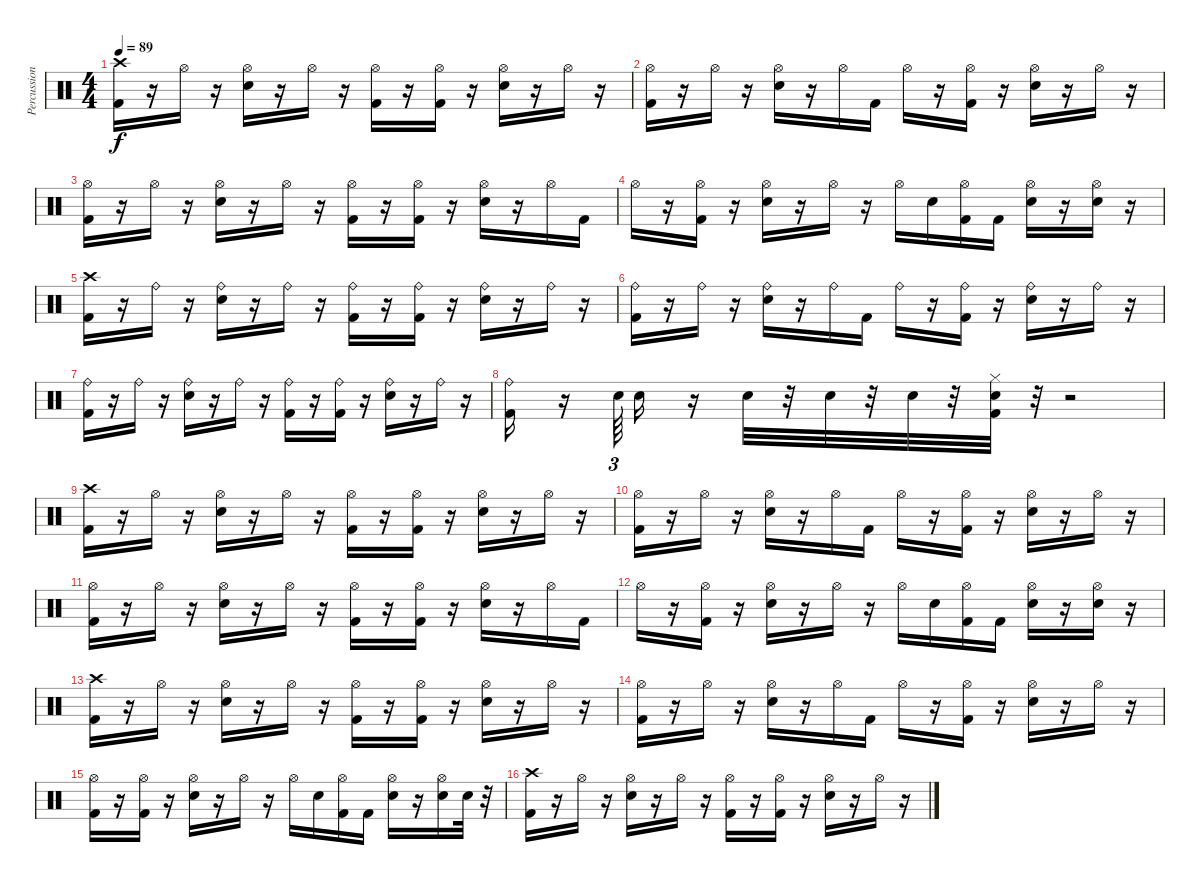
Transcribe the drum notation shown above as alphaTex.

\track ("Percussion" "Percussion") {instrument percussion}
\staff {score}
\articulation defaults
\ts (4 4)
\tempo 89
\clef neutral
\ks c
("Kick (hit) 2" "Crash high (hit)").16{dy f} r.16 "Hi-Hat (open)".16 r.16 ("Snare (hit) 2" "Hi-Hat (open)").16 r.16 "Hi-Hat (open)".16 r.16 ("Kick (hit) 2" "Hi-Hat (open)").16 r.16 ("Kick (hit) 2" "Hi-Hat (open)").16 r.16 ("Snare (hit) 2" "Hi-Hat (open)").16 r.16 "Hi-Hat (open)".16 r.16 |
("Kick (hit) 2" "Hi-Hat (open)").16 r.16 "Hi-Hat (open)".16 r.16 ("Snare (hit) 2" "Hi-Hat (open)").16 r.16 "Hi-Hat (open)".16 "Kick (hit) 2".16 "Hi-Hat (open)".16 r.16 ("Kick (hit) 2" "Hi-Hat (open)").16 r.16 ("Snare (hit) 2" "Hi-Hat (open)").16 r.16 "Hi-Hat (open)".16 r.16 |
("Kick (hit) 2" "Hi-Hat (open)").16 r.16 "Hi-Hat (open)".16 r.16 ("Snare (hit) 2" "Hi-Hat (open)").16 r.16 "Hi-Hat (open)".16 r.16 ("Kick (hit) 2" "Hi-Hat (open)").16 r.16 ("Kick (hit) 2" "Hi-Hat (open)").16 r.16 ("Snare (hit) 2" "Hi-Hat (open)").16 r.16 "Hi-Hat (open)".16 "Kick (hit) 2".16 |
"Hi-Hat (open)".16 r.16 ("Kick (hit) 2" "Hi-Hat (open)").16 r.16 ("Snare (hit) 2" "Hi-Hat (open)").16 r.16 "Hi-Hat (open)".16 r.16 "Hi-Hat (open)".16 "Snare (hit) 2".16 ("Kick (hit) 2" "Hi-Hat (open)").16 "Kick (hit) 2".16 ("Snare (hit) 2" "Hi-Hat (open)").16 r.16 ("Snare (hit) 2" "Hi-Hat (open)").16 r.16 |
("Crash high (hit)" "Kick (hit) 2").16 r.16 "Ride (bell)".16 r.16 ("Ride (bell)" "Snare (hit) 2").16 r.16 "Ride (bell)".16 r.16 ("Ride (bell)" "Kick (hit) 2").16 r.16 ("Ride (bell)" "Kick (hit) 2").16 r.16 ("Ride (bell)" "Snare (hit) 2").16 r.16 "Ride (bell)".16 r.16 |
("Ride (bell)" "Kick (hit) 2").16 r.16 "Ride (bell)".16 r.16 ("Ride (bell)" "Snare (hit) 2").16 r.16 "Ride (bell)".16 "Kick (hit) 2".16 "Ride (bell)".16 r.16 ("Ride (bell)" "Kick (hit) 2").16 r.16 ("Ride (bell)" "Snare (hit) 2").16 r.16 "Ride (bell)".16 r.16 |
("Ride (bell)" "Kick (hit) 2").16 r.16 "Ride (bell)".16 r.16 ("Ride (bell)" "Snare (hit) 2").16 r.16 "Ride (bell)".16 r.16 ("Ride (bell)" "Kick (hit) 2").16 r.16 ("Ride (bell)" "Kick (hit) 2").16 r.16 ("Ride (bell)" "Snare (hit) 2").16 r.16 "Ride (bell)".16 r.16 |
("Kick (hit) 2" "Ride (bell)").16 r.16 "Snare (hit) 2".64{tu (3 2)} "Snare (hit) 2".16 r.16 "Snare (hit) 2".32 r.32 "Snare (hit) 2".32 r.32 "Snare (hit) 2".32 r.32 ("Snare (hit) 2" "Hi-Hat (closed)" "Kick (hit) 2").32 r.32{tu (3 2)} r.2 |
("Kick (hit) 2" "Crash high (hit)").16 r.16 "Hi-Hat (open)".16 r.16 ("Snare (hit) 2" "Hi-Hat (open)").16 r.16 "Hi-Hat (open)".16 r.16 ("Kick (hit) 2" "Hi-Hat (open)").16 r.16 ("Kick (hit) 2" "Hi-Hat (open)").16 r.16 ("Snare (hit) 2" "Hi-Hat (open)").16 r.16 "Hi-Hat (open)".16 r.16 |
("Kick (hit) 2" "Hi-Hat (open)").16 r.16 "Hi-Hat (open)".16 r.16 ("Snare (hit) 2" "Hi-Hat (open)").16 r.16 "Hi-Hat (open)".16 "Kick (hit) 2".16 "Hi-Hat (open)".16 r.16 ("Kick (hit) 2" "Hi-Hat (open)").16 r.16 ("Snare (hit) 2" "Hi-Hat (open)").16 r.16 "Hi-Hat (open)".16 r.16 |
("Kick (hit) 2" "Hi-Hat (open)").16 r.16 "Hi-Hat (open)".16 r.16 ("Snare (hit) 2" "Hi-Hat (open)").16 r.16 "Hi-Hat (open)".16 r.16 ("Kick (hit) 2" "Hi-Hat (open)").16 r.16 ("Kick (hit) 2" "Hi-Hat (open)").16 r.16 ("Snare (hit) 2" "Hi-Hat (open)").16 r.16 "Hi-Hat (open)".16 "Kick (hit) 2".16 |
"Hi-Hat (open)".16 r.16 ("Kick (hit) 2" "Hi-Hat (open)").16 r.16 ("Snare (hit) 2" "Hi-Hat (open)").16 r.16 "Hi-Hat (open)".16 r.16 "Hi-Hat (open)".16 "Snare (hit) 2".16 ("Kick (hit) 2" "Hi-Hat (open)").16 "Kick (hit) 2".16 ("Snare (hit) 2" "Hi-Hat (open)").16 r.16 ("Snare (hit) 2" "Hi-Hat (open)").16 r.16 |
("Kick (hit) 2" "Crash high (hit)").16 r.16 "Hi-Hat (open)".16 r.16 ("Snare (hit) 2" "Hi-Hat (open)").16 r.16 "Hi-Hat (open)".16 r.16 ("Kick (hit) 2" "Hi-Hat (open)").16 r.16 ("Kick (hit) 2" "Hi-Hat (open)").16 r.16 ("Snare (hit) 2" "Hi-Hat (open)").16 r.16 "Hi-Hat (open)".16 r.16 |
("Kick (hit) 2" "Hi-Hat (open)").16 r.16 "Hi-Hat (open)".16 r.16 ("Snare (hit) 2" "Hi-Hat (open)").16 r.16 "Hi-Hat (open)".16 "Kick (hit) 2".16 "Hi-Hat (open)".16 r.16 ("Kick (hit) 2" "Hi-Hat (open)").16 r.16 ("Snare (hit) 2" "Hi-Hat (open)").16 r.16 "Hi-Hat (open)".16 r.16 |
("Kick (hit) 2" "Hi-Hat (open)").16 r.16 ("Kick (hit) 2" "Hi-Hat (open)").16 r.16 ("Snare (hit) 2" "Hi-Hat (open)").16 r.16 "Hi-Hat (open)".16 r.16 "Hi-Hat (open)".16 "Snare (hit) 2".16 ("Kick (hit) 2" "Hi-Hat (open)").16 "Kick (hit) 2".16 ("Snare (hit) 2" "Hi-Hat (open)").16 r.16 ("Snare (hit) 2" "Hi-Hat (open)").16 "Snare (hit) 2".32 r.32 |
("Kick (hit) 2" "Crash high (hit)").16 r.16 "Hi-Hat (open)".16 r.16 ("Snare (hit) 2" "Hi-Hat (open)").16 r.16 "Hi-Hat (open)".16 r.16 ("Kick (hit) 2" "Hi-Hat (open)").16 r.16 ("Kick (hit) 2" "Hi-Hat (open)").16 r.16 ("Snare (hit) 2" "Hi-Hat (open)").16 r.16 "Hi-Hat (open)".16 r.16
